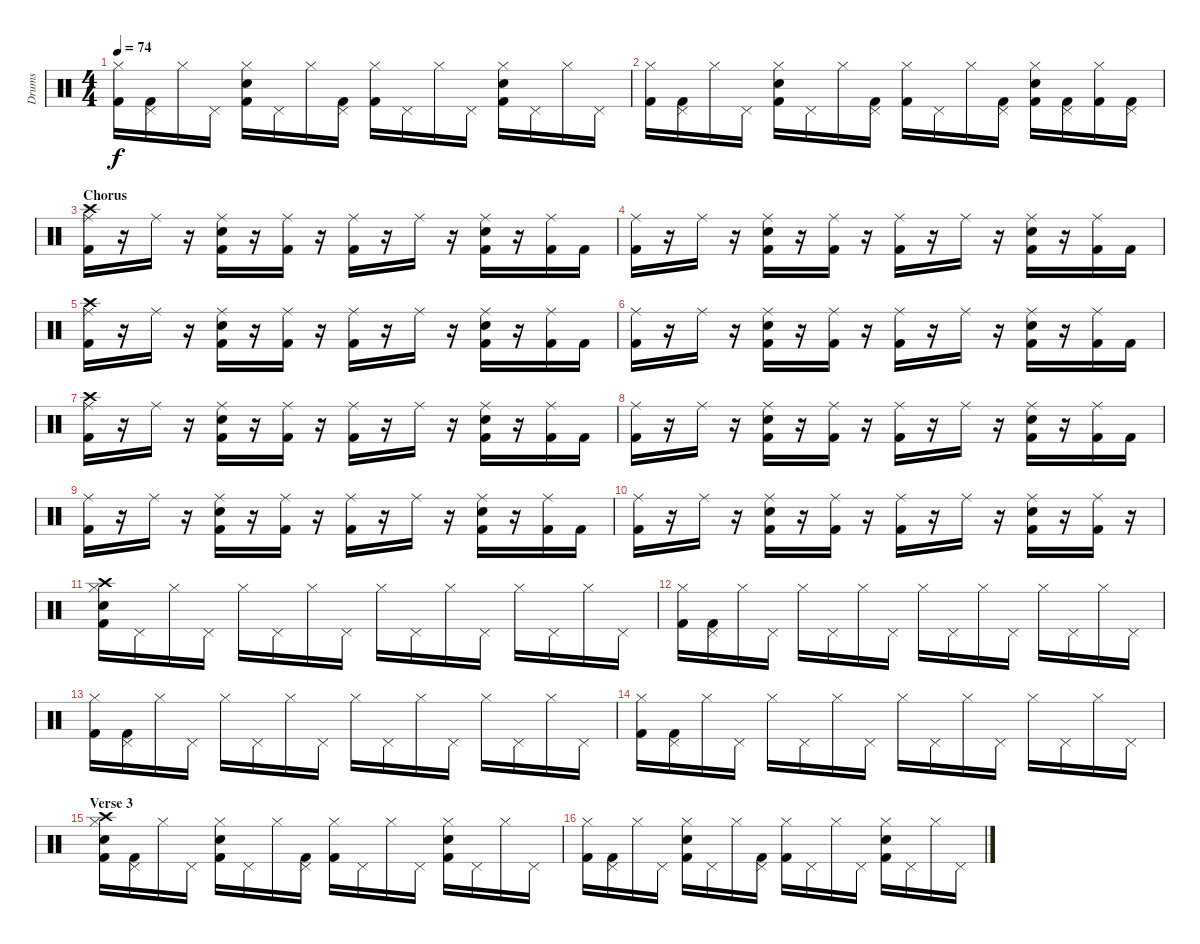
\track ("Drums" "Drums") {instrument percussion}
\staff {score}
\articulation defaults
\ts (4 4)
\tempo 74
\clef neutral
\ks c
("Hi-Hat (closed)" "Kick (hit) 2").16{dy f} ("Pedal Hi-Hat (hit)" "Kick (hit) 2").16 "Hi-Hat (closed)".16 "Pedal Hi-Hat (hit)".16 ("Hi-Hat (closed)" "Kick (hit) 2" "Snare (hit) 2").16 "Pedal Hi-Hat (hit)".16 "Hi-Hat (closed)".16 ("Pedal Hi-Hat (hit)" "Kick (hit) 2").16 ("Hi-Hat (closed)" "Kick (hit) 2").16 "Pedal Hi-Hat (hit)".16 "Hi-Hat (closed)".16 "Pedal Hi-Hat (hit)".16 ("Hi-Hat (closed)" "Kick (hit) 2" "Snare (hit) 2").16 "Pedal Hi-Hat (hit)".16 "Hi-Hat (closed)".16 "Pedal Hi-Hat (hit)".16 |
("Hi-Hat (closed)" "Kick (hit) 2").16 ("Pedal Hi-Hat (hit)" "Kick (hit) 2").16 "Hi-Hat (closed)".16 "Pedal Hi-Hat (hit)".16 ("Hi-Hat (closed)" "Kick (hit) 2" "Snare (hit) 2").16 "Pedal Hi-Hat (hit)".16 "Hi-Hat (closed)".16 ("Pedal Hi-Hat (hit)" "Kick (hit) 2").16 ("Hi-Hat (closed)" "Kick (hit) 2").16 "Pedal Hi-Hat (hit)".16 "Hi-Hat (closed)".16 ("Pedal Hi-Hat (hit)" "Kick (hit) 2").16 ("Hi-Hat (closed)" "Kick (hit) 2" "Snare (hit) 2").16 ("Pedal Hi-Hat (hit)" "Kick (hit) 2").16 ("Hi-Hat (closed)" "Kick (hit) 2").16 ("Pedal Hi-Hat (hit)" "Kick (hit) 2").16 |
\section ("" "Chorus")
("Crash high (hit)" "Ride (middle)" "Kick (hit) 2").16 r.16 "Ride (middle)".16 r.16 ("Ride (middle)" "Kick (hit) 2" "Snare (hit) 2").16 r.16 ("Ride (middle)" "Kick (hit) 2").16 r.16 ("Ride (middle)" "Kick (hit) 2").16 r.16 "Ride (middle)".16 r.16 ("Ride (middle)" "Kick (hit) 2" "Snare (hit) 2").16 r.16 ("Ride (middle)" "Kick (hit) 2").16 "Kick (hit) 2".16 |
("Ride (middle)" "Kick (hit) 2").16 r.16 "Ride (middle)".16 r.16 ("Ride (middle)" "Kick (hit) 2" "Snare (hit) 2").16 r.16 ("Ride (middle)" "Kick (hit) 2").16 r.16 ("Ride (middle)" "Kick (hit) 2").16 r.16 "Ride (middle)".16 r.16 ("Ride (middle)" "Kick (hit) 2" "Snare (hit) 2").16 r.16 ("Ride (middle)" "Kick (hit) 2").16 "Kick (hit) 2".16 |
("Crash high (hit)" "Ride (middle)" "Kick (hit) 2").16 r.16 "Ride (middle)".16 r.16 ("Ride (middle)" "Kick (hit) 2" "Snare (hit) 2").16 r.16 ("Ride (middle)" "Kick (hit) 2").16 r.16 ("Ride (middle)" "Kick (hit) 2").16 r.16 "Ride (middle)".16 r.16 ("Ride (middle)" "Kick (hit) 2" "Snare (hit) 2").16 r.16 ("Ride (middle)" "Kick (hit) 2").16 "Kick (hit) 2".16 |
("Ride (middle)" "Kick (hit) 2").16 r.16 "Ride (middle)".16 r.16 ("Ride (middle)" "Kick (hit) 2" "Snare (hit) 2").16 r.16 ("Ride (middle)" "Kick (hit) 2").16 r.16 ("Ride (middle)" "Kick (hit) 2").16 r.16 "Ride (middle)".16 r.16 ("Ride (middle)" "Kick (hit) 2" "Snare (hit) 2").16 r.16 ("Ride (middle)" "Kick (hit) 2").16 "Kick (hit) 2".16 |
("Crash high (hit)" "Ride (middle)" "Kick (hit) 2").16 r.16 "Ride (middle)".16 r.16 ("Ride (middle)" "Kick (hit) 2" "Snare (hit) 2").16 r.16 ("Ride (middle)" "Kick (hit) 2").16 r.16 ("Ride (middle)" "Kick (hit) 2").16 r.16 "Ride (middle)".16 r.16 ("Ride (middle)" "Kick (hit) 2" "Snare (hit) 2").16 r.16 ("Ride (middle)" "Kick (hit) 2").16 "Kick (hit) 2".16 |
("Ride (middle)" "Kick (hit) 2").16 r.16 "Ride (middle)".16 r.16 ("Ride (middle)" "Kick (hit) 2" "Snare (hit) 2").16 r.16 ("Ride (middle)" "Kick (hit) 2").16 r.16 ("Ride (middle)" "Kick (hit) 2").16 r.16 "Ride (middle)".16 r.16 ("Ride (middle)" "Kick (hit) 2" "Snare (hit) 2").16 r.16 ("Ride (middle)" "Kick (hit) 2").16 "Kick (hit) 2".16 |
("Ride (middle)" "Kick (hit) 2").16 r.16 "Ride (middle)".16 r.16 ("Ride (middle)" "Kick (hit) 2" "Snare (hit) 2").16 r.16 ("Ride (middle)" "Kick (hit) 2").16 r.16 ("Ride (middle)" "Kick (hit) 2").16 r.16 "Ride (middle)".16 r.16 ("Ride (middle)" "Kick (hit) 2" "Snare (hit) 2").16 r.16 ("Ride (middle)" "Kick (hit) 2").16 "Kick (hit) 2".16 |
("Ride (middle)" "Kick (hit) 2").16 r.16 "Ride (middle)".16 r.16 ("Ride (middle)" "Kick (hit) 2" "Snare (hit) 2").16 r.16 ("Ride (middle)" "Kick (hit) 2").16 r.16 ("Ride (middle)" "Kick (hit) 2").16 r.16 "Ride (middle)".16 r.16 ("Ride (middle)" "Kick (hit) 2" "Snare (hit) 2").16 r.16 ("Ride (middle)" "Kick (hit) 2").16 r.16 |
("Hi-Hat (closed)" "Crash high (hit)" "Kick (hit) 2" "Snare (hit) 2").16 "Pedal Hi-Hat (hit)".16 "Hi-Hat (closed)".16 "Pedal Hi-Hat (hit)".16 "Hi-Hat (closed)".16 "Pedal Hi-Hat (hit)".16 "Hi-Hat (closed)".16 "Pedal Hi-Hat (hit)".16 "Hi-Hat (closed)".16 "Pedal Hi-Hat (hit)".16 "Hi-Hat (closed)".16 "Pedal Hi-Hat (hit)".16 "Hi-Hat (closed)".16 "Pedal Hi-Hat (hit)".16 "Hi-Hat (closed)".16 "Pedal Hi-Hat (hit)".16 |
("Hi-Hat (closed)" "Kick (hit) 2").16 ("Pedal Hi-Hat (hit)" "Kick (hit) 2").16 "Hi-Hat (closed)".16 "Pedal Hi-Hat (hit)".16 "Hi-Hat (closed)".16 "Pedal Hi-Hat (hit)".16 "Hi-Hat (closed)".16 "Pedal Hi-Hat (hit)".16 "Hi-Hat (closed)".16 "Pedal Hi-Hat (hit)".16 "Hi-Hat (closed)".16 "Pedal Hi-Hat (hit)".16 "Hi-Hat (closed)".16 "Pedal Hi-Hat (hit)".16 "Hi-Hat (closed)".16 "Pedal Hi-Hat (hit)".16 |
("Hi-Hat (closed)" "Kick (hit) 2").16 ("Pedal Hi-Hat (hit)" "Kick (hit) 2").16 "Hi-Hat (closed)".16 "Pedal Hi-Hat (hit)".16 "Hi-Hat (closed)".16 "Pedal Hi-Hat (hit)".16 "Hi-Hat (closed)".16 "Pedal Hi-Hat (hit)".16 "Hi-Hat (closed)".16 "Pedal Hi-Hat (hit)".16 "Hi-Hat (closed)".16 "Pedal Hi-Hat (hit)".16 "Hi-Hat (closed)".16 "Pedal Hi-Hat (hit)".16 "Hi-Hat (closed)".16 "Pedal Hi-Hat (hit)".16 |
("Hi-Hat (closed)" "Kick (hit) 2").16 ("Pedal Hi-Hat (hit)" "Kick (hit) 2").16 "Hi-Hat (closed)".16 "Pedal Hi-Hat (hit)".16 "Hi-Hat (closed)".16 "Pedal Hi-Hat (hit)".16 "Hi-Hat (closed)".16 "Pedal Hi-Hat (hit)".16 "Hi-Hat (closed)".16 "Pedal Hi-Hat (hit)".16 "Hi-Hat (closed)".16 "Pedal Hi-Hat (hit)".16 "Hi-Hat (closed)".16 "Pedal Hi-Hat (hit)".16 "Hi-Hat (closed)".16 "Pedal Hi-Hat (hit)".16 |
\section ("" "Verse 3")
("Hi-Hat (closed)" "Crash high (hit)" "Kick (hit) 2" "Snare (hit) 2").16 ("Pedal Hi-Hat (hit)" "Kick (hit) 2").16 "Hi-Hat (closed)".16 "Pedal Hi-Hat (hit)".16 ("Hi-Hat (closed)" "Kick (hit) 2" "Snare (hit) 2").16 "Pedal Hi-Hat (hit)".16 "Hi-Hat (closed)".16 ("Pedal Hi-Hat (hit)" "Kick (hit) 2").16 ("Hi-Hat (closed)" "Kick (hit) 2").16 "Pedal Hi-Hat (hit)".16 "Hi-Hat (closed)".16 "Pedal Hi-Hat (hit)".16 ("Hi-Hat (closed)" "Kick (hit) 2" "Snare (hit) 2").16 "Pedal Hi-Hat (hit)".16 "Hi-Hat (closed)".16 "Pedal Hi-Hat (hit)".16 |
("Hi-Hat (closed)" "Kick (hit) 2").16 ("Pedal Hi-Hat (hit)" "Kick (hit) 2").16 "Hi-Hat (closed)".16 "Pedal Hi-Hat (hit)".16 ("Hi-Hat (closed)" "Kick (hit) 2" "Snare (hit) 2").16 "Pedal Hi-Hat (hit)".16 "Hi-Hat (closed)".16 ("Pedal Hi-Hat (hit)" "Kick (hit) 2").16 ("Hi-Hat (closed)" "Kick (hit) 2").16 "Pedal Hi-Hat (hit)".16 "Hi-Hat (closed)".16 "Pedal Hi-Hat (hit)".16 ("Hi-Hat (closed)" "Kick (hit) 2" "Snare (hit) 2").16 "Pedal Hi-Hat (hit)".16 "Hi-Hat (closed)".16 "Pedal Hi-Hat (hit)".16
